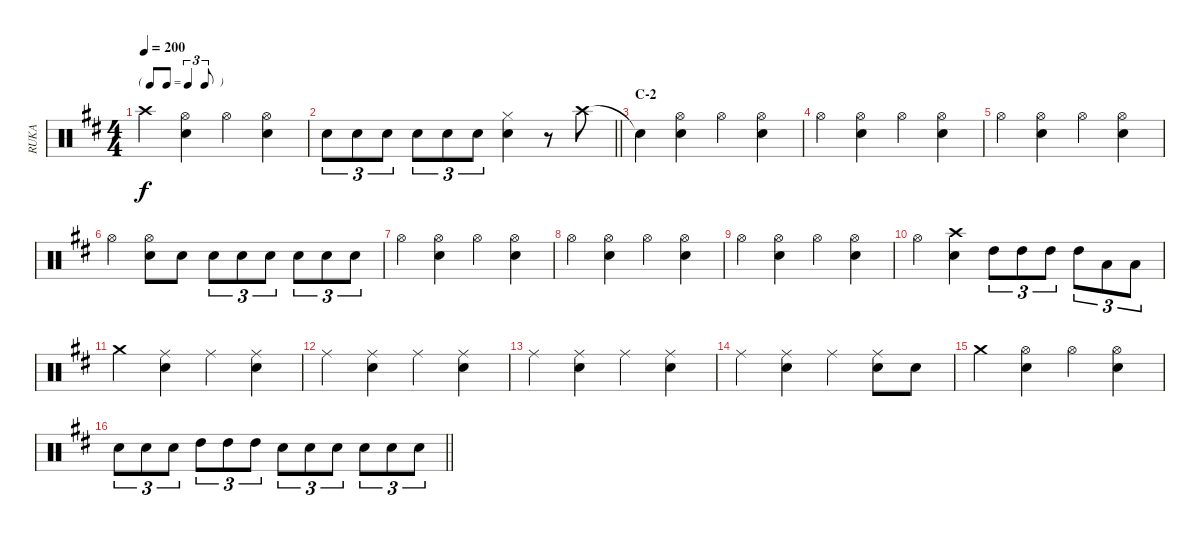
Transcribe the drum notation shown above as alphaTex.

\track ("RUKA" "RUKA") {instrument percussion}
\staff {score}
\articulation defaults
\ts (4 4)
\tf triplet8th
\tempo 200
\clef neutral
\ks d "Crash high (hit)".4{dy f}
("Hi-Hat (open)" "Snare (hit) 2").4 "Hi-Hat (open)".4 ("Hi-Hat (open)" "Snare (hit) 2").4 |
\barLineRight lightlight "Snare (hit) 2".8{tu (3 2)} "Snare (hit) 2".8{tu (3 2)} "Snare (hit) 2".8{tu (3 2)} "Snare (hit) 2".8{tu (3 2)} "Snare (hit) 2".8{tu (3 2)} "Snare (hit) 2".8{tu (3 2)}
("Hi-Hat (closed)" "Snare (hit) 2").4 r.8 "Crash high (hit)".8 |
\section ("" "C-2")
"Snare (hit)"{t}.4 ("Hi-Hat (open)" "Snare (hit) 2").4 "Hi-Hat (open)".4 ("Hi-Hat (open)" "Snare (hit) 2").4 |
"Hi-Hat (open)".4 ("Hi-Hat (open)" "Snare (hit) 2").4 "Hi-Hat (open)".4 ("Hi-Hat (open)" "Snare (hit) 2").4 |
"Hi-Hat (open)".4 ("Hi-Hat (open)" "Snare (hit) 2").4 "Hi-Hat (open)".4 ("Hi-Hat (open)" "Snare (hit) 2").4 |
"Hi-Hat (open)".4 ("Hi-Hat (open)" "Snare (hit) 2").8 "Snare (hit) 2".8 "Snare (hit) 2".8{tu (3 2)} "Snare (hit) 2".8{tu (3 2)} "Snare (hit) 2".8{tu (3 2)} "Snare (hit) 2".8{tu (3 2)} "Snare (hit) 2".8{tu (3 2)} "Snare (hit) 2".8{tu (3 2)} |
"Hi-Hat (open)".4 ("Hi-Hat (open)" "Snare (hit) 2").4 "Hi-Hat (open)".4 ("Hi-Hat (open)" "Snare (hit) 2").4 |
"Hi-Hat (open)".4 ("Hi-Hat (open)" "Snare (hit) 2").4 "Hi-Hat (open)".4 ("Hi-Hat (open)" "Snare (hit) 2").4 |
"Hi-Hat (open)".4 ("Hi-Hat (open)" "Snare (hit) 2").4 "Hi-Hat (open)".4 ("Hi-Hat (open)" "Snare (hit) 2").4 |
"Hi-Hat (open)".4 ("Crash high (hit)" "Snare (hit) 2").4 "High Tom (hit)".8{tu (3 2)} "High Tom (hit)".8{tu (3 2)} "High Tom (hit)".8{tu (3 2)} "High Tom (hit)".8{tu (3 2)} "Low Tom (hit)".8{tu (3 2)} "Low Tom (hit)".8{tu (3 2)} |
"Crash medium (hit)".4 ("Ride (middle)" "Snare (hit) 2").4 "Ride (middle)".4 ("Ride (middle)" "Snare (hit) 2").4 |
"Ride (middle)".4 ("Ride (middle)" "Snare (hit) 2").4 "Ride (middle)".4 ("Ride (middle)" "Snare (hit) 2").4 |
"Ride (middle)".4 ("Ride (middle)" "Snare (hit) 2").4 "Ride (middle)".4 ("Ride (middle)" "Snare (hit) 2").4 |
"Ride (middle)".4 ("Ride (middle)" "Snare (hit) 2").4 "Ride (middle)".4 ("Ride (middle)" "Snare (hit) 2").8 "Snare (hit) 2".8 |
"Crash medium (hit)".4 ("Hi-Hat (open)" "Snare (hit) 2").4 "Hi-Hat (open)".4 ("Hi-Hat (open)" "Snare (hit) 2").4 |
\barLineRight lightlight "Snare (hit) 2".8{tu (3 2)} "Snare (hit) 2".8{tu (3 2)} "Snare (hit) 2".8{tu (3 2)} "High Tom (hit)".8{tu (3 2)} "High Tom (hit)".8{tu (3 2)} "High Tom (hit)".8{tu (3 2)} "Snare (hit) 2".8{tu (3 2)} "Snare (hit) 2".8{tu (3 2)} "Snare (hit) 2".8{tu (3 2)} "Snare (hit) 2".8{tu (3 2)} "Snare (hit) 2".8{tu (3 2)} "Snare (hit) 2".8{tu (3 2)}
